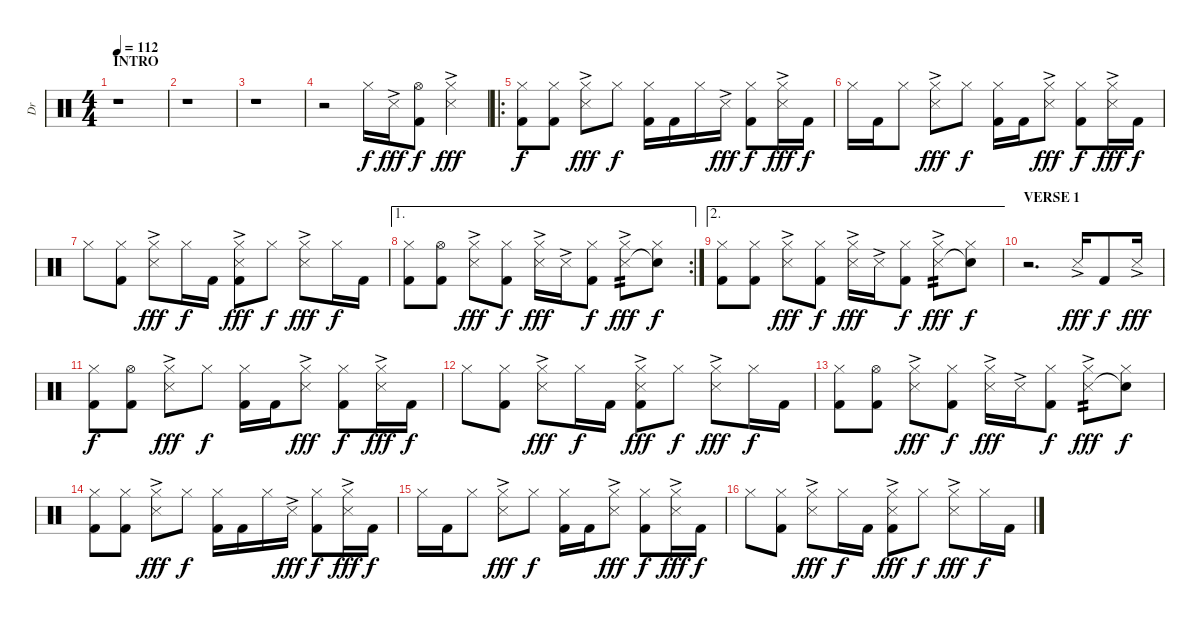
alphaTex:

\track ("Dr" "Dr") {instrument percussion}
\staff {score}
\articulation defaults
\ts (4 4)
\section ("" "INTRO")
\tempo 112
\clef neutral
\ks c
r.1{dy f volume 15} |
r.1 |
r.1 |
r.2 "Hi-Hat (closed)".16 "Snare (side stick) 3"{ac}.16{dy fff} ("Hi-Hat (open)" "Kick (hit) 2").8{dy f} ("Hi-Hat (closed)" "Snare (side stick) 3"{ac}).4{dy fff} |
\ro
("Hi-Hat (closed)" "Kick (hit) 2").8{dy f} ("Hi-Hat (closed)" "Kick (hit) 2").8 ("Hi-Hat (closed)" "Snare (side stick) 3"{ac}).8{dy fff} "Hi-Hat (closed)".8{dy f} ("Hi-Hat (closed)" "Kick (hit) 2").16 "Kick (hit) 2".16 "Hi-Hat (closed)".16 "Snare (side stick) 3"{ac}.16{dy fff} ("Hi-Hat (closed)" "Kick (hit) 2").8{dy f} ("Hi-Hat (closed)" "Snare (side stick) 3"{ac}).16{dy fff} "Kick (hit) 2".16{dy f} |
"Hi-Hat (closed)".16 "Kick (hit) 2".16 "Hi-Hat (closed)".8 ("Hi-Hat (closed)" "Snare (side stick) 3"{ac}).8{dy fff} "Hi-Hat (closed)".8{dy f} ("Hi-Hat (closed)" "Kick (hit) 2").16 "Kick (hit) 2".16 ("Hi-Hat (closed)" "Snare (side stick) 3"{ac}).8{dy fff} ("Hi-Hat (closed)" "Kick (hit) 2").8{dy f} ("Hi-Hat (closed)" "Snare (side stick) 3"{ac}).16{dy fff} "Kick (hit) 2".16{dy f} |
"Hi-Hat (closed)".8 ("Hi-Hat (closed)" "Kick (hit) 2").8 ("Hi-Hat (closed)" "Snare (side stick) 3"{ac}).8{dy fff} "Hi-Hat (closed)".16{dy f} "Kick (hit) 2".16 ("Hi-Hat (closed)" "Snare (side stick) 3"{ac} "Kick (hit) 2").8{dy fff} "Hi-Hat (closed)".8{dy f} ("Hi-Hat (closed)" "Snare (side stick) 3"{ac}).8{dy fff} "Hi-Hat (closed)".16{dy f} "Kick (hit) 2".16 |
\ae 1
\rc 2
("Hi-Hat (closed)" "Kick (hit) 2").8 ("Hi-Hat (open)" "Kick (hit) 2").8 ("Hi-Hat (closed)" "Snare (side stick) 3"{ac}).8{dy fff} ("Hi-Hat (closed)" "Kick (hit) 2").8{dy f} ("Hi-Hat (closed)" "Snare (side stick) 3"{ac}).16{dy fff} "Snare (side stick) 3"{ac}.16 ("Hi-Hat (closed)" "Kick (hit) 2").8{dy f} ("Hi-Hat (closed)" "Snare (side stick) 3"{ac}).8{tp 2 dy fff} ("Hi-Hat (closed)" "Snare (hit)"{t}).8{dy f} |
\ae 2
("Hi-Hat (closed)" "Kick (hit) 2").8 ("Hi-Hat (closed)" "Kick (hit) 2").8 ("Hi-Hat (closed)" "Snare (side stick) 3"{ac}).8{dy fff} ("Hi-Hat (closed)" "Kick (hit) 2").8{dy f} ("Hi-Hat (closed)" "Snare (side stick) 3"{ac}).16{dy fff} "Snare (side stick) 3"{ac}.16 ("Hi-Hat (closed)" "Kick (hit) 2").8{dy f} ("Hi-Hat (closed)" "Snare (side stick) 3"{ac}).8{tp 2 dy fff} ("Hi-Hat (closed)" "Snare (hit)"{t}).8{dy f} |
\section ("" "VERSE 1")
r.2{d} "Snare (side stick) 3"{ac}.16{dy fff} "Kick (hit) 2".8{dy f} "Snare (side stick) 3"{ac}.16{dy fff} |
("Hi-Hat (closed)" "Kick (hit) 2").8{dy f} ("Hi-Hat (open)" "Kick (hit) 2").8 ("Hi-Hat (closed)" "Snare (side stick) 3"{ac}).8{dy fff} "Hi-Hat (closed)".8{dy f} ("Hi-Hat (closed)" "Kick (hit) 2").16 "Kick (hit) 2".16 ("Hi-Hat (closed)" "Snare (side stick) 3"{ac}).8{dy fff} ("Hi-Hat (closed)" "Kick (hit) 2").8{dy f} ("Hi-Hat (closed)" "Snare (side stick) 3"{ac}).16{dy fff} "Kick (hit) 2".16{dy f} |
"Hi-Hat (closed)".8 ("Hi-Hat (closed)" "Kick (hit) 2").8 ("Hi-Hat (closed)" "Snare (side stick) 3"{ac}).8{dy fff} "Hi-Hat (closed)".16{dy f} "Kick (hit) 2".16 ("Hi-Hat (closed)" "Snare (side stick) 3"{ac} "Kick (hit) 2").8{dy fff} "Hi-Hat (closed)".8{dy f} ("Hi-Hat (closed)" "Snare (side stick) 3"{ac}).8{dy fff} "Hi-Hat (closed)".16{dy f} "Kick (hit) 2".16 |
("Hi-Hat (closed)" "Kick (hit) 2").8 ("Hi-Hat (open)" "Kick (hit) 2").8 ("Hi-Hat (closed)" "Snare (side stick) 3"{ac}).8{dy fff} ("Hi-Hat (closed)" "Kick (hit) 2").8{dy f} ("Hi-Hat (closed)" "Snare (side stick) 3"{ac}).16{dy fff} "Snare (side stick) 3"{ac}.16 ("Hi-Hat (closed)" "Kick (hit) 2").8{dy f} ("Hi-Hat (closed)" "Snare (side stick) 3"{ac}).8{tp 2 dy fff} ("Hi-Hat (closed)" "Snare (hit)"{t}).8{dy f} |
("Hi-Hat (closed)" "Kick (hit) 2").8 ("Hi-Hat (closed)" "Kick (hit) 2").8 ("Hi-Hat (closed)" "Snare (side stick) 3"{ac}).8{dy fff} "Hi-Hat (closed)".8{dy f} ("Hi-Hat (closed)" "Kick (hit) 2").16 "Kick (hit) 2".16 "Hi-Hat (closed)".16 "Snare (side stick) 3"{ac}.16{dy fff} ("Hi-Hat (closed)" "Kick (hit) 2").8{dy f} ("Hi-Hat (closed)" "Snare (side stick) 3"{ac}).16{dy fff} "Kick (hit) 2".16{dy f} |
"Hi-Hat (closed)".16 "Kick (hit) 2".16 "Hi-Hat (closed)".8 ("Hi-Hat (closed)" "Snare (side stick) 3"{ac}).8{dy fff} "Hi-Hat (closed)".8{dy f} ("Hi-Hat (closed)" "Kick (hit) 2").16 "Kick (hit) 2".16 ("Hi-Hat (closed)" "Snare (side stick) 3"{ac}).8{dy fff} ("Hi-Hat (closed)" "Kick (hit) 2").8{dy f} ("Hi-Hat (closed)" "Snare (side stick) 3"{ac}).16{dy fff} "Kick (hit) 2".16{dy f} |
"Hi-Hat (closed)".8 ("Hi-Hat (closed)" "Kick (hit) 2").8 ("Hi-Hat (closed)" "Snare (side stick) 3"{ac}).8{dy fff} "Hi-Hat (closed)".16{dy f} "Kick (hit) 2".16 ("Hi-Hat (closed)" "Snare (side stick) 3"{ac} "Kick (hit) 2").8{dy fff} "Hi-Hat (closed)".8{dy f} ("Hi-Hat (closed)" "Snare (side stick) 3"{ac}).8{dy fff} "Hi-Hat (closed)".16{dy f} "Kick (hit) 2".16
